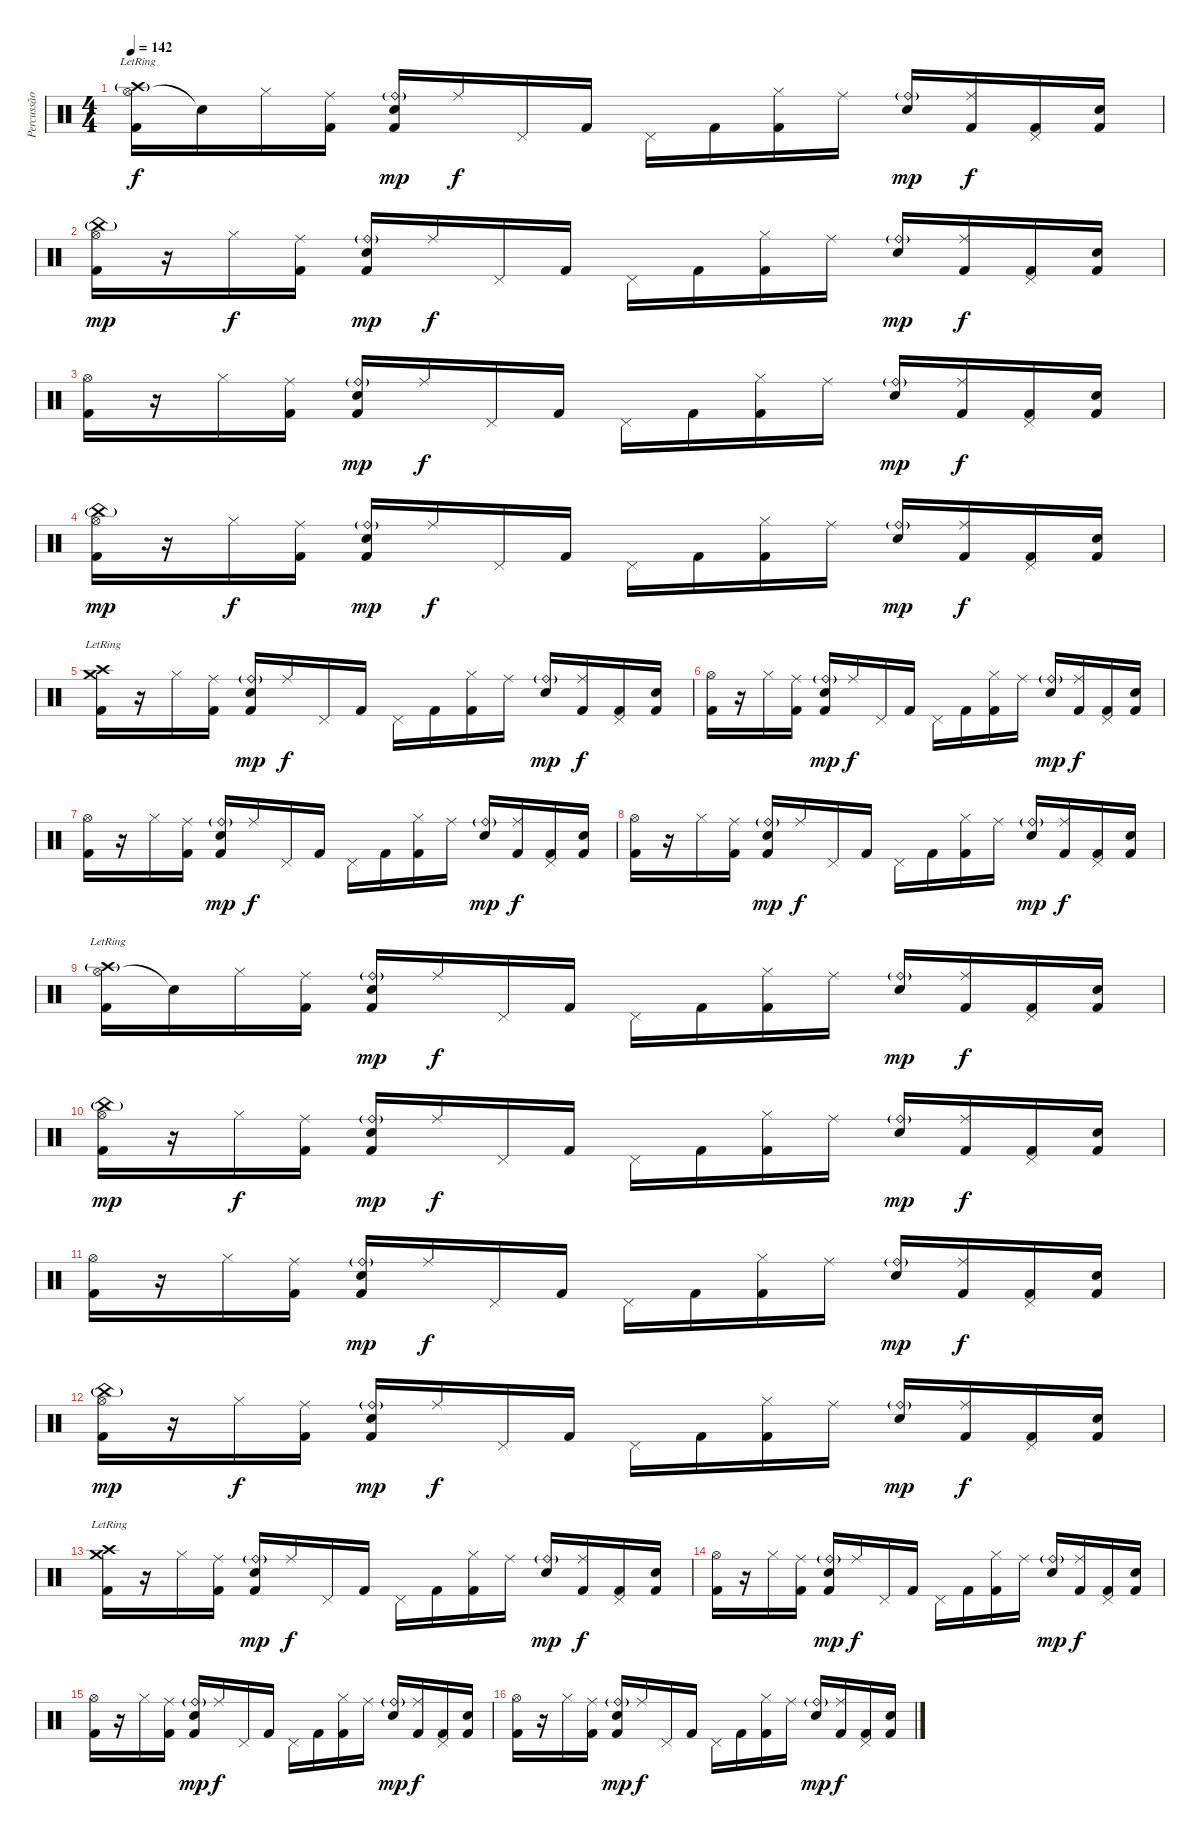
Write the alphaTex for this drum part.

\track ("Percussão" "Percussão") {instrument percussion}
\staff {score}
\articulation defaults
\ts (4 4)
\tempo 142
\clef neutral
\ks c
("Hi-Hat (open)" "Crash high (hit)"{g lr} "Kick (hit) 2").16{dy f} "Snare (hit)"{t}.16 "Hi-Hat (closed)".16 ("Ride (middle)" "Kick (hit) 2").16 ("Ride (bell)"{g} "Snare (hit) 2" "Kick (hit) 2").16{dy mp} "Ride (middle)".16{dy f} "Pedal Hi-Hat (hit)".16 "Kick (hit) 2".16 "Pedal Hi-Hat (hit)".16 "Kick (hit) 2".16 ("Hi-Hat (closed)" "Kick (hit) 2").16 "Ride (middle)".16 ("Ride (bell)"{g} "Snare (hit) 2").16{dy mp} ("Ride (middle)" "Kick (hit) 2").16{dy f} ("Pedal Hi-Hat (hit)" "Kick (hit) 2").16 ("Snare (hit) 2" "Kick (hit) 2").16 |
("Hi-Hat (open)" "China (hit)"{g} "Kick (hit) 2").16{dy mp} r.16 "Hi-Hat (closed)".16{dy f} ("Ride (middle)" "Kick (hit) 2").16 ("Ride (bell)"{g} "Snare (hit) 2" "Kick (hit) 2").16{dy mp} "Ride (middle)".16{dy f} "Pedal Hi-Hat (hit)".16 "Kick (hit) 2".16 "Pedal Hi-Hat (hit)".16 "Kick (hit) 2".16 ("Hi-Hat (closed)" "Kick (hit) 2").16 "Ride (middle)".16 ("Ride (bell)"{g} "Snare (hit) 2").16{dy mp} ("Ride (middle)" "Kick (hit) 2").16{dy f} ("Pedal Hi-Hat (hit)" "Kick (hit) 2").16 ("Snare (hit) 2" "Kick (hit) 2").16 |
("Hi-Hat (open)" "Kick (hit) 2").16 r.16 "Hi-Hat (closed)".16 ("Ride (middle)" "Kick (hit) 2").16 ("Ride (bell)"{g} "Snare (hit) 2" "Kick (hit) 2").16{dy mp} "Ride (middle)".16{dy f} "Pedal Hi-Hat (hit)".16 "Kick (hit) 2".16 "Pedal Hi-Hat (hit)".16 "Kick (hit) 2".16 ("Hi-Hat (closed)" "Kick (hit) 2").16 "Ride (middle)".16 ("Ride (bell)"{g} "Snare (hit) 2").16{dy mp} ("Ride (middle)" "Kick (hit) 2").16{dy f} ("Pedal Hi-Hat (hit)" "Kick (hit) 2").16 ("Snare (hit) 2" "Kick (hit) 2").16 |
("Hi-Hat (open)" "China (hit)"{g} "Kick (hit) 2").16{dy mp} r.16 "Hi-Hat (closed)".16{dy f} ("Ride (middle)" "Kick (hit) 2").16 ("Ride (bell)"{g} "Snare (hit) 2" "Kick (hit) 2").16{dy mp} "Ride (middle)".16{dy f} "Pedal Hi-Hat (hit)".16 "Kick (hit) 2".16 "Pedal Hi-Hat (hit)".16 "Kick (hit) 2".16 ("Hi-Hat (closed)" "Kick (hit) 2").16 "Ride (middle)".16 ("Ride (bell)"{g} "Snare (hit) 2").16{dy mp} ("Ride (middle)" "Kick (hit) 2").16{dy f} ("Pedal Hi-Hat (hit)" "Kick (hit) 2").16 ("Snare (hit) 2" "Kick (hit) 2").16 |
("Crash medium (hit)" "Crash high (hit)"{lr} "Kick (hit) 2").16 r.16 "Hi-Hat (closed)".16 ("Ride (middle)" "Kick (hit) 2").16 ("Ride (bell)"{g} "Snare (hit) 2" "Kick (hit) 2").16{dy mp} "Ride (middle)".16{dy f} "Pedal Hi-Hat (hit)".16 "Kick (hit) 2".16 "Pedal Hi-Hat (hit)".16 "Kick (hit) 2".16 ("Hi-Hat (closed)" "Kick (hit) 2").16 "Ride (middle)".16 ("Ride (bell)"{g} "Snare (hit) 2").16{dy mp} ("Ride (middle)" "Kick (hit) 2").16{dy f} ("Pedal Hi-Hat (hit)" "Kick (hit) 2").16 ("Snare (hit) 2" "Kick (hit) 2").16 |
("Hi-Hat (open)" "Kick (hit) 2").16 r.16 "Hi-Hat (closed)".16 ("Ride (middle)" "Kick (hit) 2").16 ("Ride (bell)"{g} "Snare (hit) 2" "Kick (hit) 2").16{dy mp} "Ride (middle)".16{dy f} "Pedal Hi-Hat (hit)".16 "Kick (hit) 2".16 "Pedal Hi-Hat (hit)".16 "Kick (hit) 2".16 ("Hi-Hat (closed)" "Kick (hit) 2").16 "Ride (middle)".16 ("Ride (bell)"{g} "Snare (hit) 2").16{dy mp} ("Ride (middle)" "Kick (hit) 2").16{dy f} ("Pedal Hi-Hat (hit)" "Kick (hit) 2").16 ("Snare (hit) 2" "Kick (hit) 2").16 |
("Hi-Hat (open)" "Kick (hit) 2").16 r.16 "Hi-Hat (closed)".16 ("Ride (middle)" "Kick (hit) 2").16 ("Ride (bell)"{g} "Snare (hit) 2" "Kick (hit) 2").16{dy mp} "Ride (middle)".16{dy f} "Pedal Hi-Hat (hit)".16 "Kick (hit) 2".16 "Pedal Hi-Hat (hit)".16 "Kick (hit) 2".16 ("Hi-Hat (closed)" "Kick (hit) 2").16 "Ride (middle)".16 ("Ride (bell)"{g} "Snare (hit) 2").16{dy mp} ("Ride (middle)" "Kick (hit) 2").16{dy f} ("Pedal Hi-Hat (hit)" "Kick (hit) 2").16 ("Snare (hit) 2" "Kick (hit) 2").16 |
("Hi-Hat (open)" "Kick (hit) 2").16 r.16 "Hi-Hat (closed)".16 ("Ride (middle)" "Kick (hit) 2").16 ("Ride (bell)"{g} "Snare (hit) 2" "Kick (hit) 2").16{dy mp} "Ride (middle)".16{dy f} "Pedal Hi-Hat (hit)".16 "Kick (hit) 2".16 "Pedal Hi-Hat (hit)".16 "Kick (hit) 2".16 ("Hi-Hat (closed)" "Kick (hit) 2").16 "Ride (middle)".16 ("Ride (bell)"{g} "Snare (hit) 2").16{dy mp} ("Ride (middle)" "Kick (hit) 2").16{dy f} ("Pedal Hi-Hat (hit)" "Kick (hit) 2").16 ("Snare (hit) 2" "Kick (hit) 2").16 |
("Hi-Hat (open)" "Crash high (hit)"{g lr} "Kick (hit) 2").16 "Snare (hit)"{t}.16 "Hi-Hat (closed)".16 ("Ride (middle)" "Kick (hit) 2").16 ("Ride (bell)"{g} "Snare (hit) 2" "Kick (hit) 2").16{dy mp} "Ride (middle)".16{dy f} "Pedal Hi-Hat (hit)".16 "Kick (hit) 2".16 "Pedal Hi-Hat (hit)".16 "Kick (hit) 2".16 ("Hi-Hat (closed)" "Kick (hit) 2").16 "Ride (middle)".16 ("Ride (bell)"{g} "Snare (hit) 2").16{dy mp} ("Ride (middle)" "Kick (hit) 2").16{dy f} ("Pedal Hi-Hat (hit)" "Kick (hit) 2").16 ("Snare (hit) 2" "Kick (hit) 2").16 |
("Hi-Hat (open)" "China (hit)"{g} "Kick (hit) 2").16{dy mp} r.16 "Hi-Hat (closed)".16{dy f} ("Ride (middle)" "Kick (hit) 2").16 ("Ride (bell)"{g} "Snare (hit) 2" "Kick (hit) 2").16{dy mp} "Ride (middle)".16{dy f} "Pedal Hi-Hat (hit)".16 "Kick (hit) 2".16 "Pedal Hi-Hat (hit)".16 "Kick (hit) 2".16 ("Hi-Hat (closed)" "Kick (hit) 2").16 "Ride (middle)".16 ("Ride (bell)"{g} "Snare (hit) 2").16{dy mp} ("Ride (middle)" "Kick (hit) 2").16{dy f} ("Pedal Hi-Hat (hit)" "Kick (hit) 2").16 ("Snare (hit) 2" "Kick (hit) 2").16 |
("Hi-Hat (open)" "Kick (hit) 2").16 r.16 "Hi-Hat (closed)".16 ("Ride (middle)" "Kick (hit) 2").16 ("Ride (bell)"{g} "Snare (hit) 2" "Kick (hit) 2").16{dy mp} "Ride (middle)".16{dy f} "Pedal Hi-Hat (hit)".16 "Kick (hit) 2".16 "Pedal Hi-Hat (hit)".16 "Kick (hit) 2".16 ("Hi-Hat (closed)" "Kick (hit) 2").16 "Ride (middle)".16 ("Ride (bell)"{g} "Snare (hit) 2").16{dy mp} ("Ride (middle)" "Kick (hit) 2").16{dy f} ("Pedal Hi-Hat (hit)" "Kick (hit) 2").16 ("Snare (hit) 2" "Kick (hit) 2").16 |
("Hi-Hat (open)" "China (hit)"{g} "Kick (hit) 2").16{dy mp} r.16 "Hi-Hat (closed)".16{dy f} ("Ride (middle)" "Kick (hit) 2").16 ("Ride (bell)"{g} "Snare (hit) 2" "Kick (hit) 2").16{dy mp} "Ride (middle)".16{dy f} "Pedal Hi-Hat (hit)".16 "Kick (hit) 2".16 "Pedal Hi-Hat (hit)".16 "Kick (hit) 2".16 ("Hi-Hat (closed)" "Kick (hit) 2").16 "Ride (middle)".16 ("Ride (bell)"{g} "Snare (hit) 2").16{dy mp} ("Ride (middle)" "Kick (hit) 2").16{dy f} ("Pedal Hi-Hat (hit)" "Kick (hit) 2").16 ("Snare (hit) 2" "Kick (hit) 2").16 |
("Crash medium (hit)" "Crash high (hit)"{lr} "Kick (hit) 2").16 r.16 "Hi-Hat (closed)".16 ("Ride (middle)" "Kick (hit) 2").16 ("Ride (bell)"{g} "Snare (hit) 2" "Kick (hit) 2").16{dy mp} "Ride (middle)".16{dy f} "Pedal Hi-Hat (hit)".16 "Kick (hit) 2".16 "Pedal Hi-Hat (hit)".16 "Kick (hit) 2".16 ("Hi-Hat (closed)" "Kick (hit) 2").16 "Ride (middle)".16 ("Ride (bell)"{g} "Snare (hit) 2").16{dy mp} ("Ride (middle)" "Kick (hit) 2").16{dy f} ("Pedal Hi-Hat (hit)" "Kick (hit) 2").16 ("Snare (hit) 2" "Kick (hit) 2").16 |
("Hi-Hat (open)" "Kick (hit) 2").16 r.16 "Hi-Hat (closed)".16 ("Ride (middle)" "Kick (hit) 2").16 ("Ride (bell)"{g} "Snare (hit) 2" "Kick (hit) 2").16{dy mp} "Ride (middle)".16{dy f} "Pedal Hi-Hat (hit)".16 "Kick (hit) 2".16 "Pedal Hi-Hat (hit)".16 "Kick (hit) 2".16 ("Hi-Hat (closed)" "Kick (hit) 2").16 "Ride (middle)".16 ("Ride (bell)"{g} "Snare (hit) 2").16{dy mp} ("Ride (middle)" "Kick (hit) 2").16{dy f} ("Pedal Hi-Hat (hit)" "Kick (hit) 2").16 ("Snare (hit) 2" "Kick (hit) 2").16 |
("Hi-Hat (open)" "Kick (hit) 2").16 r.16 "Hi-Hat (closed)".16 ("Ride (middle)" "Kick (hit) 2").16 ("Ride (bell)"{g} "Snare (hit) 2" "Kick (hit) 2").16{dy mp} "Ride (middle)".16{dy f} "Pedal Hi-Hat (hit)".16 "Kick (hit) 2".16 "Pedal Hi-Hat (hit)".16 "Kick (hit) 2".16 ("Hi-Hat (closed)" "Kick (hit) 2").16 "Ride (middle)".16 ("Ride (bell)"{g} "Snare (hit) 2").16{dy mp} ("Ride (middle)" "Kick (hit) 2").16{dy f} ("Pedal Hi-Hat (hit)" "Kick (hit) 2").16 ("Snare (hit) 2" "Kick (hit) 2").16 |
("Hi-Hat (open)" "Kick (hit) 2").16 r.16 "Hi-Hat (closed)".16 ("Ride (middle)" "Kick (hit) 2").16 ("Ride (bell)"{g} "Snare (hit) 2" "Kick (hit) 2").16{dy mp} "Ride (middle)".16{dy f} "Pedal Hi-Hat (hit)".16 "Kick (hit) 2".16 "Pedal Hi-Hat (hit)".16 "Kick (hit) 2".16 ("Hi-Hat (closed)" "Kick (hit) 2").16 "Ride (middle)".16 ("Ride (bell)"{g} "Snare (hit) 2").16{dy mp} ("Ride (middle)" "Kick (hit) 2").16{dy f} ("Pedal Hi-Hat (hit)" "Kick (hit) 2").16 ("Snare (hit) 2" "Kick (hit) 2").16
